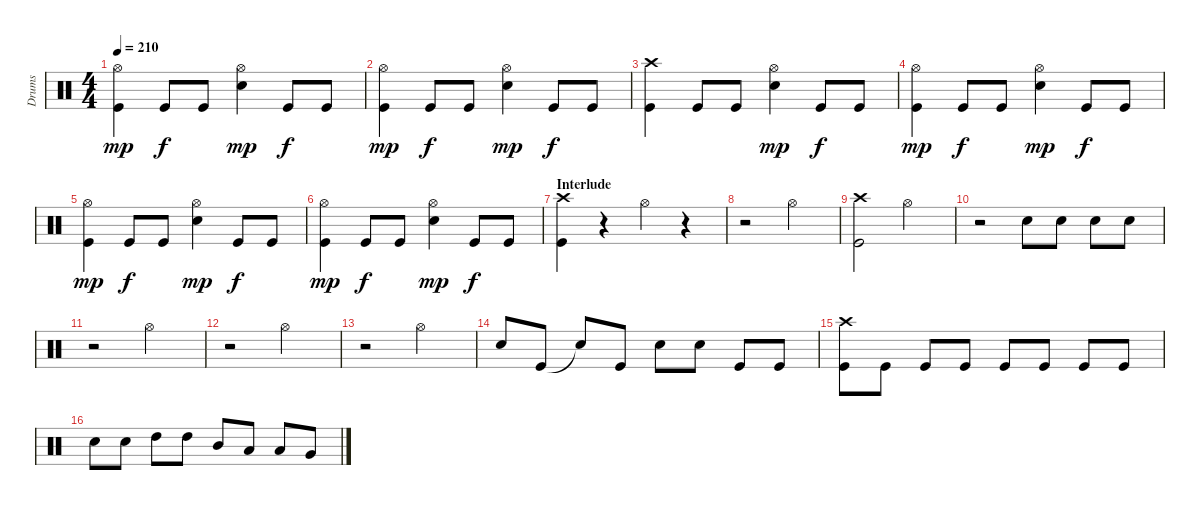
\track ("Drums" "Drums") {instrument percussion}
\staff {score}
\articulation defaults
\ts (4 4)
\tempo 210
\clef neutral
\ks c
("Hi-Hat (open)" "Kick (hit)").4{dy mp} "Kick (hit)".8{dy f} "Kick (hit)".8 ("Hi-Hat (open)" "Electric Snare (hit)").4{dy mp} "Kick (hit)".8{dy f} "Kick (hit)".8 |
("Hi-Hat (open)" "Kick (hit)").4{dy mp} "Kick (hit)".8{dy f} "Kick (hit)".8 ("Hi-Hat (open)" "Electric Snare (hit)").4{dy mp} "Kick (hit)".8{dy f} "Kick (hit)".8 |
("Crash high (hit)" "Kick (hit)").4 "Kick (hit)".8 "Kick (hit)".8 ("Hi-Hat (open)" "Electric Snare (hit)").4{dy mp} "Kick (hit)".8{dy f} "Kick (hit)".8 |
("Hi-Hat (open)" "Kick (hit)").4{dy mp} "Kick (hit)".8{dy f} "Kick (hit)".8 ("Hi-Hat (open)" "Electric Snare (hit)").4{dy mp} "Kick (hit)".8{dy f} "Kick (hit)".8 |
("Hi-Hat (open)" "Kick (hit)").4{dy mp} "Kick (hit)".8{dy f} "Kick (hit)".8 ("Hi-Hat (open)" "Electric Snare (hit)").4{dy mp} "Kick (hit)".8{dy f} "Kick (hit)".8 |
("Hi-Hat (open)" "Kick (hit)").4{dy mp} "Kick (hit)".8{dy f} "Kick (hit)".8 ("Hi-Hat (open)" "Electric Snare (hit)").4{dy mp} "Kick (hit)".8{dy f} "Kick (hit)".8 |
\section ("" "Interlude")
("Crash high (hit)" "Kick (hit)").4 r.4 "Hi-Hat (open)".4 r.4 |
r.2 "Hi-Hat (open)".2 |
("Crash high (hit)" "Kick (hit)").2 "Hi-Hat (open)".2 |
r.2 "Electric Snare (hit)".8 "Electric Snare (hit)".8 "Electric Snare (hit)".8 "Electric Snare (hit)".8 |
r.2 "Hi-Hat (open)".2 |
r.2 "Hi-Hat (open)".2 |
r.2 "Hi-Hat (open)".2 |
"Electric Snare (hit)".8 "Kick (hit)".8 "Snare (hit)"{t}.8 "Kick (hit)".8 "Electric Snare (hit)".8 "Electric Snare (hit)".8 "Kick (hit)".8 "Kick (hit)".8 |
("Crash high (hit)" "Kick (hit)").8 "Kick (hit)".8 "Kick (hit)".8 "Kick (hit)".8 "Kick (hit)".8 "Kick (hit)".8 "Kick (hit)".8 "Kick (hit)".8 |
"Electric Snare (hit)".8 "Electric Snare (hit)".8 "High Tom (hit)".8 "High Tom (hit)".8 "Mid Tom (hit)".8 "Low Tom (hit)".8 "Low Tom (hit)".8 "Very Low Tom (hit)".8
